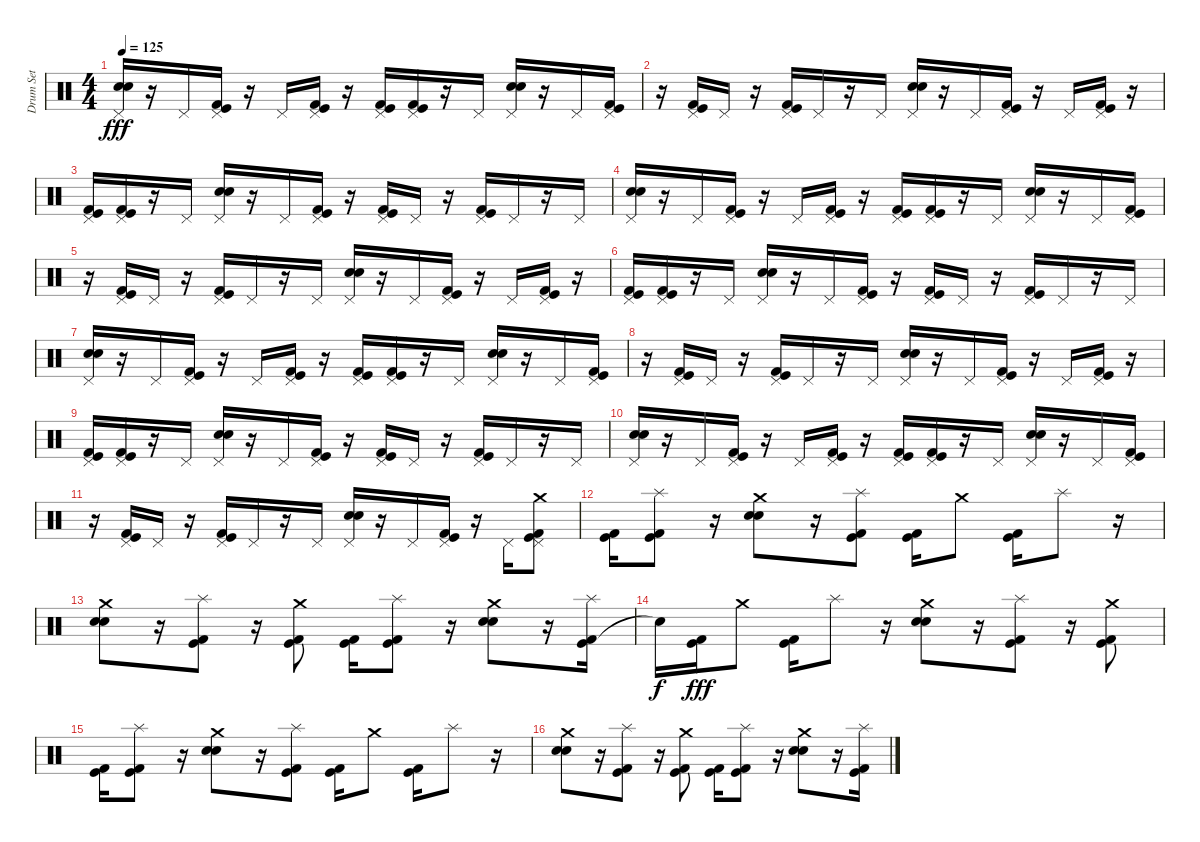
\track ("Drum Set" "Drum Set") {instrument percussion}
\staff {score}
\articulation defaults
\ts (4 4)
\tempo 125
\clef neutral
\ks c
("Electric Snare (hit)" "Snare (hit) 2" "Pedal Hi-Hat (hit)").16{dy fff} r.16 "Pedal Hi-Hat (hit)".16 ("Kick (hit)" "Kick (hit) 2" "Pedal Hi-Hat (hit)").16 r.16 "Pedal Hi-Hat (hit)".16 ("Pedal Hi-Hat (hit)" "Kick (hit) 2" "Kick (hit)").16 r.16 ("Kick (hit)" "Kick (hit) 2" "Pedal Hi-Hat (hit)").16 ("Kick (hit) 2" "Kick (hit)" "Pedal Hi-Hat (hit)").16 r.16 "Pedal Hi-Hat (hit)".16 ("Electric Snare (hit)" "Snare (hit) 2" "Pedal Hi-Hat (hit)").16 r.16 "Pedal Hi-Hat (hit)".16 ("Kick (hit)" "Kick (hit) 2" "Pedal Hi-Hat (hit)").16 |
r.16 ("Kick (hit)" "Kick (hit) 2" "Pedal Hi-Hat (hit)").16 "Pedal Hi-Hat (hit)".16 r.16 ("Kick (hit)" "Kick (hit) 2" "Pedal Hi-Hat (hit)").16 "Pedal Hi-Hat (hit)".16 r.16 "Pedal Hi-Hat (hit)".16 ("Electric Snare (hit)" "Snare (hit) 2" "Pedal Hi-Hat (hit)").16 r.16 "Pedal Hi-Hat (hit)".16 ("Kick (hit)" "Kick (hit) 2" "Pedal Hi-Hat (hit)").16 r.16 "Pedal Hi-Hat (hit)".16 ("Pedal Hi-Hat (hit)" "Kick (hit) 2" "Kick (hit)").16 r.16 |
("Kick (hit)" "Kick (hit) 2" "Pedal Hi-Hat (hit)").16 ("Kick (hit) 2" "Kick (hit)" "Pedal Hi-Hat (hit)").16 r.16 "Pedal Hi-Hat (hit)".16 ("Electric Snare (hit)" "Snare (hit) 2" "Pedal Hi-Hat (hit)").16 r.16 "Pedal Hi-Hat (hit)".16 ("Kick (hit)" "Kick (hit) 2" "Pedal Hi-Hat (hit)").16 r.16 ("Kick (hit)" "Kick (hit) 2" "Pedal Hi-Hat (hit)").16 "Pedal Hi-Hat (hit)".16 r.16 ("Kick (hit)" "Kick (hit) 2" "Pedal Hi-Hat (hit)").16 "Pedal Hi-Hat (hit)".16 r.16 "Pedal Hi-Hat (hit)".16 |
("Electric Snare (hit)" "Snare (hit) 2" "Pedal Hi-Hat (hit)").16 r.16 "Pedal Hi-Hat (hit)".16 ("Kick (hit)" "Kick (hit) 2" "Pedal Hi-Hat (hit)").16 r.16 "Pedal Hi-Hat (hit)".16 ("Pedal Hi-Hat (hit)" "Kick (hit) 2" "Kick (hit)").16 r.16 ("Kick (hit)" "Kick (hit) 2" "Pedal Hi-Hat (hit)").16 ("Kick (hit) 2" "Kick (hit)" "Pedal Hi-Hat (hit)").16 r.16 "Pedal Hi-Hat (hit)".16 ("Electric Snare (hit)" "Snare (hit) 2" "Pedal Hi-Hat (hit)").16 r.16 "Pedal Hi-Hat (hit)".16 ("Kick (hit)" "Kick (hit) 2" "Pedal Hi-Hat (hit)").16 |
r.16 ("Kick (hit)" "Kick (hit) 2" "Pedal Hi-Hat (hit)").16 "Pedal Hi-Hat (hit)".16 r.16 ("Kick (hit)" "Kick (hit) 2" "Pedal Hi-Hat (hit)").16 "Pedal Hi-Hat (hit)".16 r.16 "Pedal Hi-Hat (hit)".16 ("Electric Snare (hit)" "Snare (hit) 2" "Pedal Hi-Hat (hit)").16 r.16 "Pedal Hi-Hat (hit)".16 ("Kick (hit)" "Kick (hit) 2" "Pedal Hi-Hat (hit)").16 r.16 "Pedal Hi-Hat (hit)".16 ("Pedal Hi-Hat (hit)" "Kick (hit) 2" "Kick (hit)").16 r.16 |
("Kick (hit)" "Kick (hit) 2" "Pedal Hi-Hat (hit)").16 ("Kick (hit) 2" "Kick (hit)" "Pedal Hi-Hat (hit)").16 r.16 "Pedal Hi-Hat (hit)".16 ("Electric Snare (hit)" "Snare (hit) 2" "Pedal Hi-Hat (hit)").16 r.16 "Pedal Hi-Hat (hit)".16 ("Kick (hit)" "Kick (hit) 2" "Pedal Hi-Hat (hit)").16 r.16 ("Kick (hit)" "Kick (hit) 2" "Pedal Hi-Hat (hit)").16 "Pedal Hi-Hat (hit)".16 r.16 ("Kick (hit)" "Kick (hit) 2" "Pedal Hi-Hat (hit)").16 "Pedal Hi-Hat (hit)".16 r.16 "Pedal Hi-Hat (hit)".16 |
("Electric Snare (hit)" "Snare (hit) 2" "Pedal Hi-Hat (hit)").16 r.16 "Pedal Hi-Hat (hit)".16 ("Kick (hit)" "Kick (hit) 2" "Pedal Hi-Hat (hit)").16 r.16 "Pedal Hi-Hat (hit)".16 ("Pedal Hi-Hat (hit)" "Kick (hit) 2" "Kick (hit)").16 r.16 ("Kick (hit)" "Kick (hit) 2" "Pedal Hi-Hat (hit)").16 ("Kick (hit) 2" "Kick (hit)" "Pedal Hi-Hat (hit)").16 r.16 "Pedal Hi-Hat (hit)".16 ("Electric Snare (hit)" "Snare (hit) 2" "Pedal Hi-Hat (hit)").16 r.16 "Pedal Hi-Hat (hit)".16 ("Kick (hit)" "Kick (hit) 2" "Pedal Hi-Hat (hit)").16 |
r.16 ("Kick (hit)" "Kick (hit) 2" "Pedal Hi-Hat (hit)").16 "Pedal Hi-Hat (hit)".16 r.16 ("Kick (hit)" "Kick (hit) 2" "Pedal Hi-Hat (hit)").16 "Pedal Hi-Hat (hit)".16 r.16 "Pedal Hi-Hat (hit)".16 ("Electric Snare (hit)" "Snare (hit) 2" "Pedal Hi-Hat (hit)").16 r.16 "Pedal Hi-Hat (hit)".16 ("Kick (hit)" "Kick (hit) 2" "Pedal Hi-Hat (hit)").16 r.16 "Pedal Hi-Hat (hit)".16 ("Pedal Hi-Hat (hit)" "Kick (hit) 2" "Kick (hit)").16 r.16 |
("Kick (hit)" "Kick (hit) 2" "Pedal Hi-Hat (hit)").16 ("Kick (hit) 2" "Kick (hit)" "Pedal Hi-Hat (hit)").16 r.16 "Pedal Hi-Hat (hit)".16 ("Electric Snare (hit)" "Snare (hit) 2" "Pedal Hi-Hat (hit)").16 r.16 "Pedal Hi-Hat (hit)".16 ("Kick (hit)" "Kick (hit) 2" "Pedal Hi-Hat (hit)").16 r.16 ("Kick (hit)" "Kick (hit) 2" "Pedal Hi-Hat (hit)").16 "Pedal Hi-Hat (hit)".16 r.16 ("Kick (hit)" "Kick (hit) 2" "Pedal Hi-Hat (hit)").16 "Pedal Hi-Hat (hit)".16 r.16 "Pedal Hi-Hat (hit)".16 |
("Electric Snare (hit)" "Snare (hit) 2" "Pedal Hi-Hat (hit)").16 r.16 "Pedal Hi-Hat (hit)".16 ("Kick (hit)" "Kick (hit) 2" "Pedal Hi-Hat (hit)").16 r.16 "Pedal Hi-Hat (hit)".16 ("Pedal Hi-Hat (hit)" "Kick (hit) 2" "Kick (hit)").16 r.16 ("Kick (hit)" "Kick (hit) 2" "Pedal Hi-Hat (hit)").16 ("Kick (hit) 2" "Kick (hit)" "Pedal Hi-Hat (hit)").16 r.16 "Pedal Hi-Hat (hit)".16 ("Electric Snare (hit)" "Snare (hit) 2" "Pedal Hi-Hat (hit)").16 r.16 "Pedal Hi-Hat (hit)".16 ("Kick (hit)" "Kick (hit) 2" "Pedal Hi-Hat (hit)").16 |
r.16 ("Kick (hit)" "Kick (hit) 2" "Pedal Hi-Hat (hit)").16 "Pedal Hi-Hat (hit)".16 r.16 ("Pedal Hi-Hat (hit)" "Kick (hit)" "Kick (hit) 2").16 "Pedal Hi-Hat (hit)".16 r.16 "Pedal Hi-Hat (hit)".16 ("Pedal Hi-Hat (hit)" "Electric Snare (hit)" "Snare (hit) 2").16 r.16 "Pedal Hi-Hat (hit)".16 ("Pedal Hi-Hat (hit)" "Kick (hit)" "Kick (hit) 2").16 r.16 "Pedal Hi-Hat (hit)".16 ("Pedal Hi-Hat (hit)" "Kick (hit) 2" "Kick (hit)" "Crash medium (hit)").8 |
("Kick (hit)" "Kick (hit) 2").16 ("Kick (hit) 2" "Kick (hit)" "Splash (hit)").8 r.16 ("Electric Snare (hit)" "Snare (hit) 2" "Crash medium (hit)").8 r.16 ("Kick (hit)" "Kick (hit) 2" "Splash (hit)").8 ("Kick (hit)" "Kick (hit) 2").16 "Crash medium (hit)".8 ("Kick (hit)" "Kick (hit) 2").16 "Splash (hit)".8 r.16 |
("Electric Snare (hit)" "Snare (hit) 2" "Crash medium (hit)").8 r.16 ("Kick (hit)" "Kick (hit) 2" "Splash (hit)").8 r.16 ("Kick (hit) 2" "Kick (hit)" "Crash medium (hit)").8 ("Kick (hit)" "Kick (hit) 2").16 ("Kick (hit) 2" "Kick (hit)" "Splash (hit)").8 r.16 ("Electric Snare (hit)" "Snare (hit) 2" "Crash medium (hit)").8 r.16 ("Kick (hit)" "Kick (hit) 2" "Splash (hit)").16 |
"Snare (hit)"{t}.16{dy f} ("Kick (hit)" "Kick (hit) 2").16{dy fff} "Crash medium (hit)".8 ("Kick (hit)" "Kick (hit) 2").16 "Splash (hit)".8 r.16 ("Electric Snare (hit)" "Snare (hit) 2" "Crash medium (hit)").8 r.16 ("Kick (hit)" "Kick (hit) 2" "Splash (hit)").8 r.16 ("Crash medium (hit)" "Kick (hit) 2" "Kick (hit)").8 |
("Kick (hit)" "Kick (hit) 2").16 ("Splash (hit)" "Kick (hit) 2" "Kick (hit)").8 r.16 ("Crash medium (hit)" "Electric Snare (hit)" "Snare (hit) 2").8 r.16 ("Splash (hit)" "Kick (hit)" "Kick (hit) 2").8 ("Kick (hit)" "Kick (hit) 2").16 "Crash medium (hit)".8 ("Kick (hit)" "Kick (hit) 2").16 "Splash (hit)".8 r.16 |
("Electric Snare (hit)" "Snare (hit) 2" "Crash medium (hit)").8 r.16 ("Kick (hit)" "Kick (hit) 2" "Splash (hit)").8 r.16 ("Kick (hit) 2" "Kick (hit)" "Crash medium (hit)").8 ("Kick (hit)" "Kick (hit) 2").16 ("Kick (hit) 2" "Kick (hit)" "Splash (hit)").8 r.16 ("Electric Snare (hit)" "Snare (hit) 2" "Crash medium (hit)").8 r.16 ("Kick (hit)" "Kick (hit) 2" "Splash (hit)").16
